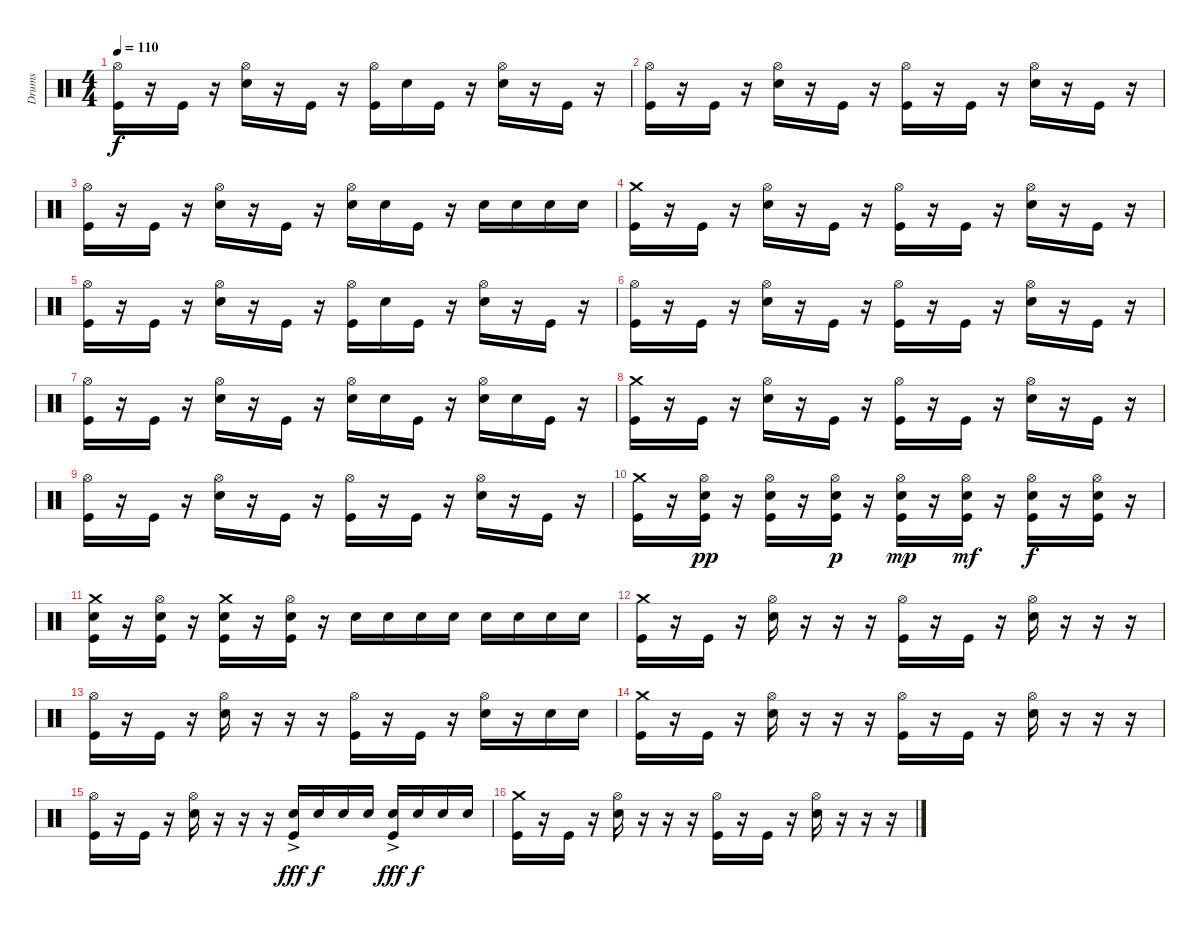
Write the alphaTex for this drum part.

\track ("Drums" "Drums") {instrument percussion}
\staff {score}
\articulation defaults
\ts (4 4)
\tempo 110
\clef neutral
\ks c
("Hi-Hat (open)" "Kick (hit)").16{dy f} r.16 "Kick (hit)".16 r.16 ("Hi-Hat (open)" "Snare (hit) 2").16 r.16 "Kick (hit)".16 r.16 ("Hi-Hat (open)" "Kick (hit)").16 "Snare (hit) 2".16 "Kick (hit)".16 r.16 ("Hi-Hat (open)" "Snare (hit) 2").16 r.16 "Kick (hit)".16 r.16 |
("Hi-Hat (open)" "Kick (hit)").16 r.16 "Kick (hit)".16 r.16 ("Hi-Hat (open)" "Snare (hit) 2").16 r.16 "Kick (hit)".16 r.16 ("Hi-Hat (open)" "Kick (hit)").16 r.16 "Kick (hit)".16 r.16 ("Hi-Hat (open)" "Snare (hit) 2").16 r.16 "Kick (hit)".16 r.16 |
("Hi-Hat (open)" "Kick (hit)").16 r.16 "Kick (hit)".16 r.16 ("Hi-Hat (open)" "Snare (hit) 2").16 r.16 "Kick (hit)".16 r.16 ("Hi-Hat (open)" "Snare (hit) 2").16 "Snare (hit) 2".16 "Kick (hit)".16 r.16 "Snare (hit) 2".16 "Snare (hit) 2".16 "Snare (hit) 2".16 "Snare (hit) 2".16 |
("Crash medium (hit)" "Kick (hit)").16 r.16 "Kick (hit)".16 r.16 ("Hi-Hat (open)" "Snare (hit) 2").16 r.16 "Kick (hit)".16 r.16 ("Hi-Hat (open)" "Kick (hit)").16 r.16 "Kick (hit)".16 r.16 ("Hi-Hat (open)" "Snare (hit) 2").16 r.16 "Kick (hit)".16 r.16 |
("Hi-Hat (open)" "Kick (hit)").16 r.16 "Kick (hit)".16 r.16 ("Hi-Hat (open)" "Snare (hit) 2").16 r.16 "Kick (hit)".16 r.16 ("Hi-Hat (open)" "Kick (hit)").16 "Snare (hit) 2".16 "Kick (hit)".16 r.16 ("Hi-Hat (open)" "Snare (hit) 2").16 r.16 "Kick (hit)".16 r.16 |
("Hi-Hat (open)" "Kick (hit)").16 r.16 "Kick (hit)".16 r.16 ("Hi-Hat (open)" "Snare (hit) 2").16 r.16 "Kick (hit)".16 r.16 ("Hi-Hat (open)" "Kick (hit)").16 r.16 "Kick (hit)".16 r.16 ("Hi-Hat (open)" "Snare (hit) 2").16 r.16 "Kick (hit)".16 r.16 |
("Hi-Hat (open)" "Kick (hit)").16 r.16 "Kick (hit)".16 r.16 ("Hi-Hat (open)" "Snare (hit) 2").16 r.16 "Kick (hit)".16 r.16 ("Hi-Hat (open)" "Snare (hit) 2").16 "Snare (hit) 2".16 "Kick (hit)".16 r.16 ("Hi-Hat (open)" "Snare (hit) 2").16 "Snare (hit) 2".16 "Kick (hit)".16 r.16 |
("Crash medium (hit)" "Kick (hit)").16 r.16 "Kick (hit)".16 r.16 ("Hi-Hat (open)" "Snare (hit) 2").16 r.16 "Kick (hit)".16 r.16 ("Hi-Hat (open)" "Kick (hit)").16 r.16 "Kick (hit)".16 r.16 ("Hi-Hat (open)" "Snare (hit) 2").16 r.16 "Kick (hit)".16 r.16 |
("Hi-Hat (open)" "Kick (hit)").16 r.16 "Kick (hit)".16 r.16 ("Hi-Hat (open)" "Snare (hit) 2").16 r.16 "Kick (hit)".16 r.16 ("Hi-Hat (open)" "Kick (hit)").16 r.16 "Kick (hit)".16 r.16 ("Hi-Hat (open)" "Snare (hit) 2").16 r.16 "Kick (hit)".16 r.16 |
("Crash medium (hit)" "Kick (hit)").16 r.16 ("Hi-Hat (open)" "Snare (hit) 2" "Kick (hit)").16{dy pp} r.16 ("Hi-Hat (open)" "Snare (hit) 2" "Kick (hit)").16 r.16 ("Hi-Hat (open)" "Snare (hit) 2" "Kick (hit)").16{dy p} r.16 ("Hi-Hat (open)" "Snare (hit) 2" "Kick (hit)").16{dy mp} r.16 ("Hi-Hat (open)" "Snare (hit) 2" "Kick (hit)").16{dy mf} r.16 ("Hi-Hat (open)" "Snare (hit) 2" "Kick (hit)").16{dy f} r.16 ("Hi-Hat (open)" "Snare (hit) 2" "Kick (hit)").16 r.16 |
("Crash medium (hit)" "Snare (hit) 2" "Kick (hit)").16 r.16 ("Hi-Hat (open)" "Snare (hit) 2" "Kick (hit)").16 r.16 ("Crash medium (hit)" "Snare (hit) 2" "Kick (hit)").16 r.16 ("Hi-Hat (open)" "Snare (hit) 2" "Kick (hit)").16 r.16 "Snare (hit) 2".16 "Snare (hit) 2".16 "Snare (hit) 2".16 "Snare (hit) 2".16 "Snare (hit) 2".16 "Snare (hit) 2".16 "Snare (hit) 2".16 "Snare (hit) 2".16 |
("Crash medium (hit)" "Kick (hit)").16 r.16 "Kick (hit)".16 r.16 ("Hi-Hat (open)" "Snare (hit) 2").16 r.16 r.16 r.16 ("Hi-Hat (open)" "Kick (hit)").16 r.16 "Kick (hit)".16 r.16 ("Hi-Hat (open)" "Snare (hit) 2").16 r.16 r.16 r.16 |
("Hi-Hat (open)" "Kick (hit)").16 r.16 "Kick (hit)".16 r.16 ("Hi-Hat (open)" "Snare (hit) 2").16 r.16 r.16 r.16 ("Hi-Hat (open)" "Kick (hit)").16 r.16 "Kick (hit)".16 r.16 ("Hi-Hat (open)" "Snare (hit) 2").16 r.16 "Snare (hit) 2".16 "Snare (hit) 2".16 |
("Crash medium (hit)" "Kick (hit)").16 r.16 "Kick (hit)".16 r.16 ("Hi-Hat (open)" "Snare (hit) 2").16 r.16 r.16 r.16 ("Hi-Hat (open)" "Kick (hit)").16 r.16 "Kick (hit)".16 r.16 ("Hi-Hat (open)" "Snare (hit) 2").16 r.16 r.16 r.16 |
("Hi-Hat (open)" "Kick (hit)").16 r.16 "Kick (hit)".16 r.16 ("Hi-Hat (open)" "Snare (hit) 2").16 r.16 r.16 r.16 ("Snare (hit) 2" "Kick (hit)"{ac}).16{dy fff} "Snare (hit) 2".16{dy f} "Snare (hit) 2".16 "Snare (hit) 2".16 ("Snare (hit) 2" "Kick (hit)"{ac}).16{dy fff} "Snare (hit) 2".16{dy f} "Snare (hit) 2".16 "Snare (hit) 2".16 |
("Crash medium (hit)" "Kick (hit)").16 r.16 "Kick (hit)".16 r.16 ("Hi-Hat (open)" "Snare (hit) 2").16 r.16 r.16 r.16 ("Hi-Hat (open)" "Kick (hit)").16 r.16 "Kick (hit)".16 r.16 ("Hi-Hat (open)" "Snare (hit) 2").16 r.16 r.16 r.16
